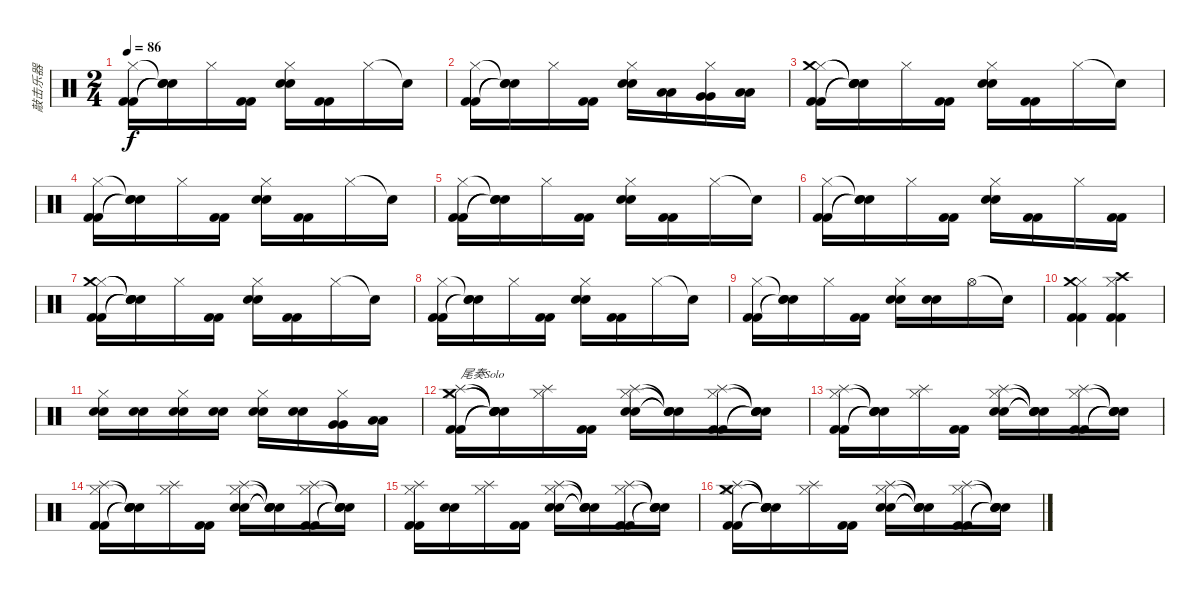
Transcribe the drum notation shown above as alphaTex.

\track ("敲击乐器" "敲击乐器") {instrument percussion}
\staff {score}
\articulation defaults
\ts (2 4)
\tempo 86
\clef neutral
\ks c
("Hi-Hat (closed)" "Kick (hit) 2" "Kick (hit) 2").16{dy f} ("Snare (hit)"{t} "Snare (hit)"{t} "Snare (hit)"{t}).16 "Hi-Hat (closed)".16 ("Kick (hit) 2" "Kick (hit) 2").16 ("Hi-Hat (closed)" "Electric Snare (hit)" "Electric Snare (hit)").16 ("Kick (hit) 2" "Kick (hit) 2").16 "Hi-Hat (closed)".16 "Snare (hit)"{t}.16 |
("Hi-Hat (closed)" "Kick (hit) 2" "Kick (hit) 2").16 ("Snare (hit)"{t} "Snare (hit)"{t} "Snare (hit)"{t}).16 "Hi-Hat (closed)".16 ("Kick (hit) 2" "Kick (hit) 2").16 ("Hi-Hat (closed)" "Snare (hit) 2" "Snare (hit) 2").16 ("Low Tom (hit)" "Low Tom (hit)").16 ("Hi-Hat (closed)" "Very Low Tom (hit)" "Very Low Tom (hit)").16 ("Low Floor Tom (hit)" "Low Floor Tom (hit)").16 |
("Hi-Hat (closed)" "Crash medium (hit)" "Kick (hit) 2" "Kick (hit) 2").16 ("Snare (hit)"{t} "Snare (hit)"{t} "Snare (hit)"{t} "Snare (hit)"{t}).16 "Hi-Hat (closed)".16 ("Kick (hit) 2" "Kick (hit) 2").16 ("Hi-Hat (closed)" "Electric Snare (hit)" "Electric Snare (hit)").16 ("Kick (hit) 2" "Kick (hit) 2").16 "Hi-Hat (closed)".16 "Snare (hit)"{t}.16 |
("Hi-Hat (closed)" "Kick (hit) 2" "Kick (hit) 2").16 ("Snare (hit)"{t} "Snare (hit)"{t} "Snare (hit)"{t}).16 "Hi-Hat (closed)".16 ("Kick (hit) 2" "Kick (hit) 2").16 ("Hi-Hat (closed)" "Electric Snare (hit)" "Electric Snare (hit)").16 ("Kick (hit) 2" "Kick (hit) 2").16 "Hi-Hat (closed)".16 "Snare (hit)"{t}.16 |
("Hi-Hat (closed)" "Kick (hit) 2" "Kick (hit) 2").16 ("Snare (hit)"{t} "Snare (hit)"{t} "Snare (hit)"{t}).16 "Hi-Hat (closed)".16 ("Kick (hit) 2" "Kick (hit) 2").16 ("Hi-Hat (closed)" "Electric Snare (hit)" "Electric Snare (hit)").16 ("Kick (hit) 2" "Kick (hit) 2").16 "Hi-Hat (closed)".16 "Snare (hit)"{t}.16 |
("Hi-Hat (closed)" "Kick (hit) 2" "Kick (hit) 2").16 ("Snare (hit)"{t} "Snare (hit)"{t} "Snare (hit)"{t}).16 "Hi-Hat (closed)".16 ("Kick (hit) 2" "Kick (hit) 2").16 ("Hi-Hat (closed)" "Electric Snare (hit)" "Electric Snare (hit)").16 ("Kick (hit) 2" "Kick (hit) 2").16 "Hi-Hat (closed)".16 ("Kick (hit) 2" "Kick (hit) 2").16 |
("Hi-Hat (closed)" "Crash medium (hit)" "Kick (hit) 2" "Kick (hit) 2").16 ("Snare (hit)"{t} "Snare (hit)"{t} "Snare (hit)"{t} "Snare (hit)"{t}).16 "Hi-Hat (closed)".16 ("Kick (hit) 2" "Kick (hit) 2").16 ("Hi-Hat (closed)" "Electric Snare (hit)" "Electric Snare (hit)").16 ("Kick (hit) 2" "Kick (hit) 2").16 "Hi-Hat (closed)".16 "Snare (hit)"{t}.16 |
("Hi-Hat (closed)" "Kick (hit) 2" "Kick (hit) 2").16 ("Snare (hit)"{t} "Snare (hit)"{t} "Snare (hit)"{t}).16 "Hi-Hat (closed)".16 ("Kick (hit) 2" "Kick (hit) 2").16 ("Hi-Hat (closed)" "Electric Snare (hit)" "Electric Snare (hit)").16 ("Kick (hit) 2" "Kick (hit) 2").16 "Hi-Hat (closed)".16 "Snare (hit)"{t}.16 |
("Hi-Hat (closed)" "Kick (hit) 2" "Kick (hit) 2").16 ("Snare (hit)"{t} "Snare (hit)"{t} "Snare (hit)"{t}).16 "Hi-Hat (closed)".16 ("Kick (hit) 2" "Kick (hit) 2").16 ("Hi-Hat (closed)" "Snare (hit) 2" "Snare (hit) 2").16 ("Snare (hit) 2" "Snare (hit) 2").16 "Hi-Hat (open)".16 "Snare (hit)"{t}.16 |
("Hi-Hat (closed)" "Crash medium (hit)" "Kick (hit) 2" "Kick (hit) 2").4 ("Hi-Hat (closed)" "Crash high (hit)" "Kick (hit) 2" "Kick (hit) 2").4 |
("Hi-Hat (closed)" "Snare (hit) 2" "Snare (hit) 2").16 ("Snare (hit) 2" "Snare (hit) 2").16 ("Hi-Hat (closed)" "Snare (hit) 2" "Snare (hit) 2").16 ("Snare (hit) 2" "Snare (hit) 2").16 ("Hi-Hat (closed)" "Snare (hit) 2" "Snare (hit) 2").16 ("Snare (hit) 2" "Snare (hit) 2").16 ("Hi-Hat (closed)" "Very Low Tom (hit)" "Very Low Tom (hit)").16 ("Low Floor Tom (hit)" "Low Floor Tom (hit)").16 |
("Hi-Hat (closed)" "Splash (hit)" "Crash medium (hit)" "Kick (hit) 2" "Kick (hit) 2").16{txt "尾奏Solo"} ("Snare (hit)"{t} "Snare (hit)"{t} "Snare (hit)"{t} "Snare (hit)"{t} "Snare (hit)"{t}).16 ("Hi-Hat (closed)" "Splash (hit)").16 ("Kick (hit) 2" "Kick (hit) 2").16 ("Hi-Hat (closed)" "Splash (hit)" "Electric Snare (hit)" "Electric Snare (hit)").16 ("Snare (hit)"{t} "Snare (hit)"{t} "Snare (hit)"{t} "Snare (hit)"{t}).16 ("Hi-Hat (closed)" "Splash (hit)" "Kick (hit) 2" "Kick (hit) 2").16 ("Snare (hit)"{t} "Snare (hit)"{t} "Snare (hit)"{t} "Snare (hit)"{t}).16 |
("Hi-Hat (closed)" "Splash (hit)" "Kick (hit) 2" "Kick (hit) 2").16 ("Snare (hit)"{t} "Snare (hit)"{t} "Snare (hit)"{t} "Snare (hit)"{t}).16 ("Hi-Hat (closed)" "Splash (hit)").16 ("Kick (hit) 2" "Kick (hit) 2").16 ("Hi-Hat (closed)" "Splash (hit)" "Electric Snare (hit)" "Electric Snare (hit)").16 ("Snare (hit)"{t} "Snare (hit)"{t} "Snare (hit)"{t} "Snare (hit)"{t}).16 ("Hi-Hat (closed)" "Splash (hit)" "Kick (hit) 2" "Kick (hit) 2").16 ("Snare (hit)"{t} "Snare (hit)"{t} "Snare (hit)"{t} "Snare (hit)"{t}).16 |
("Hi-Hat (closed)" "Splash (hit)" "Kick (hit) 2" "Kick (hit) 2").16 ("Snare (hit)"{t} "Snare (hit)"{t} "Snare (hit)"{t} "Snare (hit)"{t}).16 ("Hi-Hat (closed)" "Splash (hit)").16 ("Kick (hit) 2" "Kick (hit) 2").16 ("Hi-Hat (closed)" "Splash (hit)" "Electric Snare (hit)" "Electric Snare (hit)").16 ("Snare (hit)"{t} "Snare (hit)"{t} "Snare (hit)"{t} "Snare (hit)"{t}).16 ("Hi-Hat (closed)" "Splash (hit)" "Kick (hit) 2" "Kick (hit) 2").16 ("Snare (hit)"{t} "Snare (hit)"{t} "Snare (hit)"{t} "Snare (hit)"{t}).16 |
("Hi-Hat (closed)" "Splash (hit)" "Kick (hit) 2" "Kick (hit) 2").16 ("Electric Snare (hit)" "Electric Snare (hit)").16 ("Hi-Hat (closed)" "Splash (hit)").16 ("Kick (hit) 2" "Kick (hit) 2").16 ("Hi-Hat (closed)" "Splash (hit)" "Electric Snare (hit)" "Electric Snare (hit)").16 ("Snare (hit)"{t} "Snare (hit)"{t} "Snare (hit)"{t} "Snare (hit)"{t}).16 ("Hi-Hat (closed)" "Splash (hit)" "Kick (hit) 2" "Kick (hit) 2").16 ("Snare (hit)"{t} "Snare (hit)"{t} "Snare (hit)"{t} "Snare (hit)"{t}).16 |
("Hi-Hat (closed)" "Splash (hit)" "Crash medium (hit)" "Kick (hit) 2" "Kick (hit) 2").16 ("Snare (hit)"{t} "Snare (hit)"{t} "Snare (hit)"{t} "Snare (hit)"{t} "Snare (hit)"{t}).16 ("Hi-Hat (closed)" "Splash (hit)").16 ("Kick (hit) 2" "Kick (hit) 2").16 ("Hi-Hat (closed)" "Splash (hit)" "Electric Snare (hit)" "Electric Snare (hit)").16 ("Snare (hit)"{t} "Snare (hit)"{t} "Snare (hit)"{t} "Snare (hit)"{t}).16 ("Hi-Hat (closed)" "Splash (hit)" "Kick (hit) 2" "Kick (hit) 2").16 ("Snare (hit)"{t} "Snare (hit)"{t} "Snare (hit)"{t} "Snare (hit)"{t}).16
